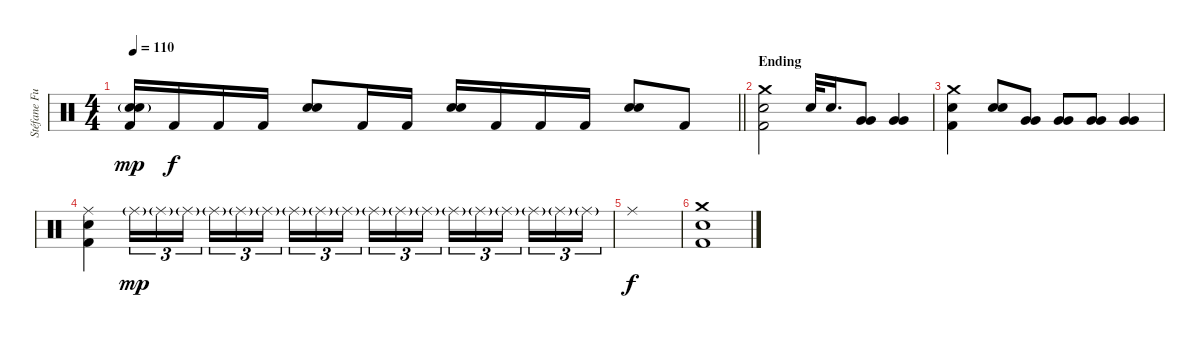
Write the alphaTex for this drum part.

\track ("Stéfane Funebre" "Stéfane Fu") {instrument percussion}
\staff {score}
\articulation defaults
\ts (4 4)
\tempo 110
\clef neutral
\barLineRight lightlight
\ks c
("Snare (hit) 2"{g} "Snare (hit) 2"{g} "Kick (hit) 2").16{dy mp} "Kick (hit) 2".16{dy f} "Kick (hit) 2".16 "Kick (hit) 2".16 ("Snare (hit) 2" "Snare (hit) 2").8 "Kick (hit) 2".16 "Kick (hit) 2".16 ("Snare (hit) 2" "Snare (hit) 2").16 "Kick (hit) 2".16 "Kick (hit) 2".16 "Kick (hit) 2".16 ("Snare (hit) 2" "Snare (hit) 2").8 "Kick (hit) 2".8 |
\section ("" "Ending")
("Crash medium (hit)" "Snare (hit) 2" "Kick (hit) 2").2 "Snare (hit) 2".32 "Snare (hit) 2".16{d} ("Very Low Tom (hit)" "Very Low Tom (hit)").8 ("Very Low Tom (hit)" "Very Low Tom (hit)").4 |
("Crash medium (hit)" "Snare (hit) 2" "Kick (hit) 2").4 ("Snare (hit) 2" "Snare (hit) 2").8 ("Very Low Tom (hit)" "Very Low Tom (hit)").8 ("Very Low Tom (hit)" "Very Low Tom (hit)").8 ("Very Low Tom (hit)" "Very Low Tom (hit)").8 ("Very Low Tom (hit)" "Very Low Tom (hit)").4 |
("Ride (middle)" "Snare (hit) 2" "Kick (hit) 2").4 "Ride (middle)"{g}.16{tu (3 2) dy mp} "Ride (middle)"{g}.16{tu (3 2)} "Ride (middle)"{g}.16{tu (3 2) beam splitsecondary} "Ride (middle)"{g}.16{tu (3 2)} "Ride (middle)"{g}.16{tu (3 2)} "Ride (middle)"{g}.16{tu (3 2)} "Ride (middle)"{g}.16{tu (3 2)} "Ride (middle)"{g}.16{tu (3 2)} "Ride (middle)"{g}.16{tu (3 2) beam splitsecondary} "Ride (middle)"{g}.16{tu (3 2)} "Ride (middle)"{g}.16{tu (3 2)} "Ride (middle)"{g}.16{tu (3 2)} "Ride (middle)"{g}.16{tu (3 2)} "Ride (middle)"{g}.16{tu (3 2)} "Ride (middle)"{g}.16{tu (3 2) beam splitsecondary} "Ride (middle)"{g}.16{tu (3 2)} "Ride (middle)"{g}.16{tu (3 2)} "Ride (middle)"{g}.16{tu (3 2)} |
"Ride (middle)".1{dy f} |
("Crash medium (hit)" "Snare (hit) 2" "Kick (hit) 2").1
